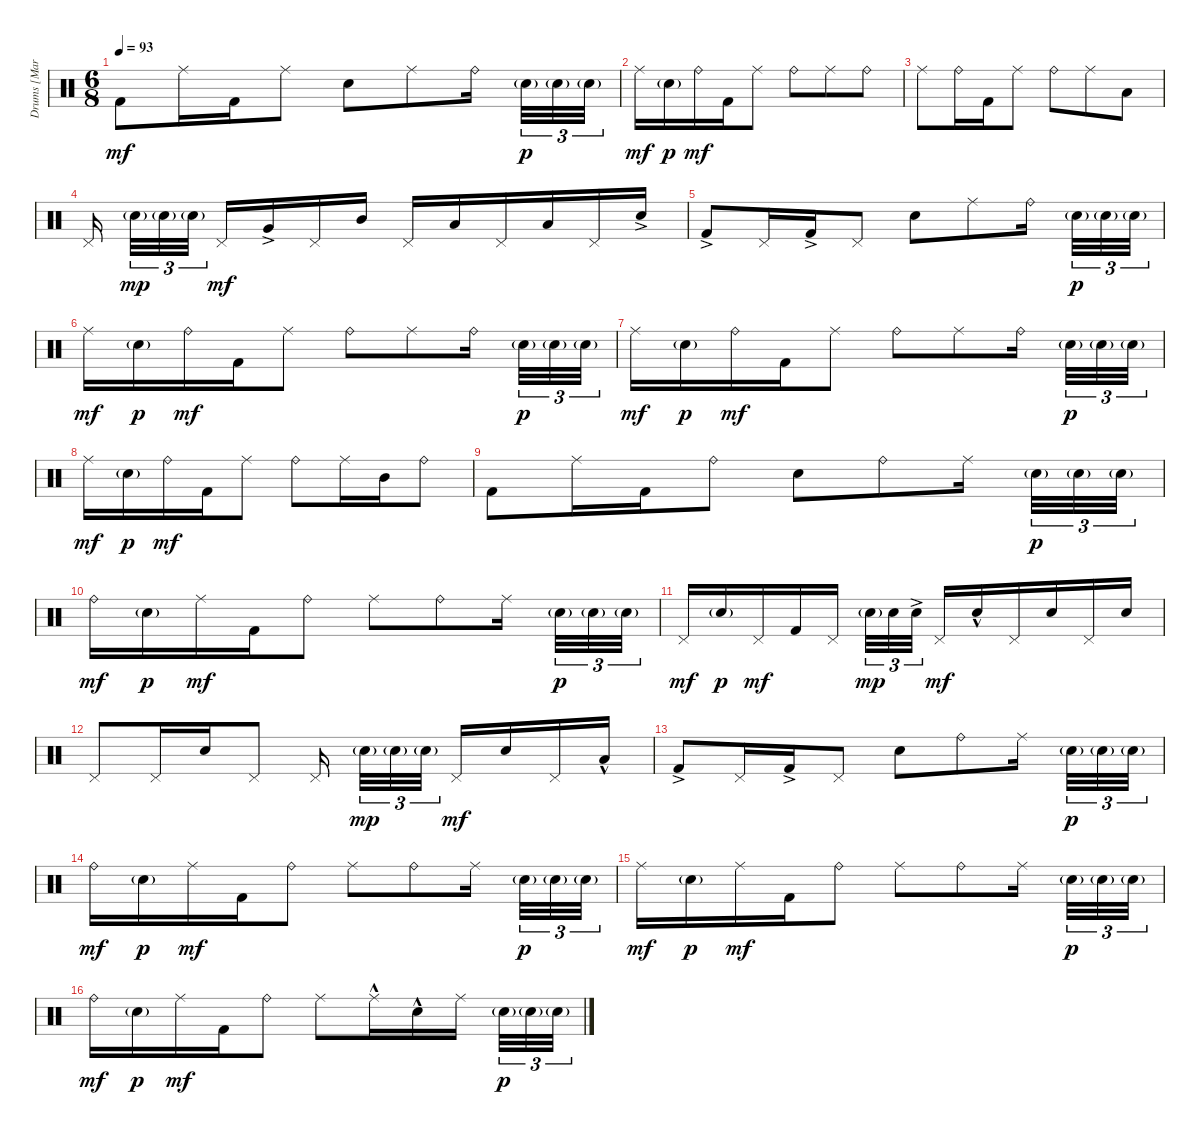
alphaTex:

\track ("Drums [Martin Lopez]" "Drums [Mar") {instrument percussion}
\staff {score}
\articulation defaults
\ts (6 8)
\tempo 93
\clef neutral
\ks c "Kick (hit) 2".8{dy mf} "Ride (middle)".16 "Kick (hit) 2".16 "Ride (middle)".8 "Snare (hit) 2".8 "Ride (middle)".8 "Ride (bell)".16{beam splitsecondary} "Snare (hit) 2"{g}.32{tu (3 2) dy p} "Snare (hit) 2"{g}.32{tu (3 2)} "Snare (hit) 2"{g}.32{tu (3 2)}
|
"Ride (middle)".16{dy mf} "Snare (hit) 2"{g}.16{dy p} "Ride (bell)".16{dy mf} "Kick (hit) 2".16 "Ride (middle)".8 "Ride (bell)".8 "Ride (middle)".8 "Ride (bell)".8 |
"Ride (middle)".8 "Ride (bell)".16 "Kick (hit) 2".16 "Ride (middle)".8 "Ride (bell)".8 "Ride (middle)".8 "Low Tom (hit)".8 |
"Pedal Hi-Hat (hit)".16{beam splitsecondary} "Snare (hit) 2"{g}.32{tu (3 2) dy mp} "Snare (hit) 2"{g}.32{tu (3 2)} "Snare (hit) 2"{g}.32{tu (3 2) beam splitsecondary} "Pedal Hi-Hat (hit)".16{dy mf} "Very Low Tom (hit)"{ac}.16 "Pedal Hi-Hat (hit)".16 "Mid Tom (hit)".16 "Pedal Hi-Hat (hit)".16 "Low Tom (hit)".16 "Pedal Hi-Hat (hit)".16 "Low Tom (hit)".16 "Pedal Hi-Hat (hit)".16 "Snare (hit) 2"{ac}.16 |
"Kick (hit) 2"{ac}.8 "Pedal Hi-Hat (hit)".16 "Kick (hit) 2"{ac}.16 "Pedal Hi-Hat (hit)".8 "Snare (hit) 2".8 "Ride (middle)".8 "Ride (bell)".16{beam splitsecondary} "Snare (hit) 2"{g}.32{tu (3 2) dy p} "Snare (hit) 2"{g}.32{tu (3 2)} "Snare (hit) 2"{g}.32{tu (3 2)} |
"Ride (middle)".16{dy mf} "Snare (hit) 2"{g}.16{dy p} "Ride (bell)".16{dy mf} "Kick (hit) 2".16 "Ride (middle)".8 "Ride (bell)".8 "Ride (middle)".8 "Ride (bell)".16{beam splitsecondary} "Snare (hit) 2"{g}.32{tu (3 2) dy p} "Snare (hit) 2"{g}.32{tu (3 2)} "Snare (hit) 2"{g}.32{tu (3 2)} |
"Ride (middle)".16{dy mf} "Snare (hit) 2"{g}.16{dy p} "Ride (bell)".16{dy mf} "Kick (hit) 2".16 "Ride (middle)".8 "Ride (bell)".8 "Ride (middle)".8 "Ride (bell)".16{beam splitsecondary} "Snare (hit) 2"{g}.32{tu (3 2) dy p} "Snare (hit) 2"{g}.32{tu (3 2)} "Snare (hit) 2"{g}.32{tu (3 2)} |
"Ride (middle)".16{dy mf} "Snare (hit) 2"{g}.16{dy p} "Ride (bell)".16{dy mf} "Kick (hit) 2".16 "Ride (middle)".8 "Ride (bell)".8 "Ride (middle)".16 "Mid Tom (hit)".16 "Ride (bell)".8 |
"Kick (hit) 2".8 "Ride (middle)".16 "Kick (hit) 2".16 "Ride (bell)".8 "Snare (hit) 2".8 "Ride (bell)".8 "Ride (middle)".16{beam splitsecondary} "Snare (hit) 2"{g}.32{tu (3 2) dy p} "Snare (hit) 2"{g}.32{tu (3 2)} "Snare (hit) 2"{g}.32{tu (3 2)} |
"Ride (bell)".16{dy mf} "Snare (hit) 2"{g}.16{dy p} "Ride (middle)".16{dy mf} "Kick (hit) 2".16 "Ride (bell)".8 "Ride (middle)".8 "Ride (bell)".8 "Ride (middle)".16{beam splitsecondary} "Snare (hit) 2"{g}.32{tu (3 2) dy p} "Snare (hit) 2"{g}.32{tu (3 2)} "Snare (hit) 2"{g}.32{tu (3 2)} |
"Pedal Hi-Hat (hit)".16{dy mf} "Snare (hit) 2"{g}.16{dy p} "Pedal Hi-Hat (hit)".16{dy mf} "Kick (hit) 2".16 "Pedal Hi-Hat (hit)".16{beam splitsecondary} "Snare (hit) 2"{g}.32{tu (3 2) dy mp} "Snare (hit) 2".32{tu (3 2)} "Snare (hit) 2"{ac}.32{tu (3 2)} "Pedal Hi-Hat (hit)".16{dy mf} "Snare (hit) 2"{hac}.16 "Pedal Hi-Hat (hit)".16 "Snare (hit) 2".16 "Pedal Hi-Hat (hit)".16 "Snare (hit) 2".16 |
"Pedal Hi-Hat (hit)".8 "Pedal Hi-Hat (hit)".16 "Snare (hit) 2".16 "Pedal Hi-Hat (hit)".8 "Pedal Hi-Hat (hit)".16{beam splitsecondary} "Snare (hit) 2"{g}.32{tu (3 2) dy mp} "Snare (hit) 2"{g}.32{tu (3 2)} "Snare (hit) 2"{g}.32{tu (3 2) beam splitsecondary} "Pedal Hi-Hat (hit)".16{dy mf} "Snare (hit) 2".16 "Pedal Hi-Hat (hit)".16 "Low Tom (hit)"{hac}.16 |
"Kick (hit) 2"{ac}.8 "Pedal Hi-Hat (hit)".16 "Kick (hit) 2"{ac}.16 "Pedal Hi-Hat (hit)".8 "Snare (hit) 2".8 "Ride (bell)".8 "Ride (middle)".16{beam splitsecondary} "Snare (hit) 2"{g}.32{tu (3 2) dy p} "Snare (hit) 2"{g}.32{tu (3 2)} "Snare (hit) 2"{g}.32{tu (3 2)} |
"Ride (bell)".16{dy mf} "Snare (hit) 2"{g}.16{dy p} "Ride (middle)".16{dy mf} "Kick (hit) 2".16 "Ride (bell)".8 "Ride (middle)".8 "Ride (bell)".8 "Ride (middle)".16{beam splitsecondary} "Snare (hit) 2"{g}.32{tu (3 2) dy p} "Snare (hit) 2"{g}.32{tu (3 2)} "Snare (hit) 2"{g}.32{tu (3 2)} |
"Ride (middle)".16{dy mf} "Snare (hit) 2"{g}.16{dy p} "Ride (middle)".16{dy mf} "Kick (hit) 2".16 "Ride (bell)".8 "Ride (middle)".8 "Ride (bell)".8 "Ride (middle)".16{beam splitsecondary} "Snare (hit) 2"{g}.32{tu (3 2) dy p} "Snare (hit) 2"{g}.32{tu (3 2)} "Snare (hit) 2"{g}.32{tu (3 2)} |
"Ride (bell)".16{dy mf} "Snare (hit) 2"{g}.16{dy p} "Ride (middle)".16{dy mf} "Kick (hit) 2".16 "Ride (bell)".8 "Ride (middle)".8 "Ride (middle)"{hac}.16 "Snare (hit) 2"{hac}.16 "Ride (middle)".16{beam splitsecondary} "Snare (hit) 2"{g}.32{tu (3 2) dy p} "Snare (hit) 2"{g}.32{tu (3 2)} "Snare (hit) 2"{g}.32{tu (3 2)}
